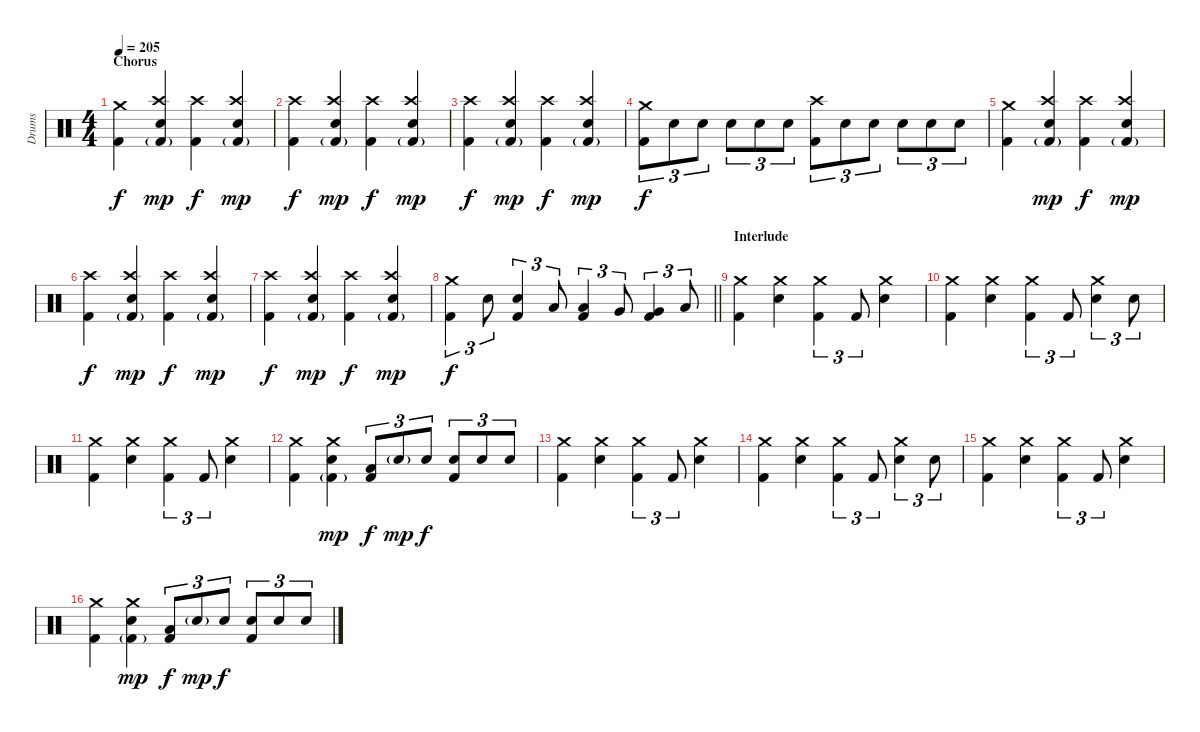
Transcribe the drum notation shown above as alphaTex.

\track ("Drums" "Drums") {instrument percussion}
\staff {score}
\articulation defaults
\ts (4 4)
\section ("" "Chorus")
\tempo 205
\clef neutral
\ks c
("Crash medium (hit)" "Kick (hit) 2").4{dy f} ("Crash high (hit)" "Electric Snare (hit)" "Kick (hit) 2"{g}).4{dy mp} ("Crash high (hit)" "Kick (hit) 2").4{dy f} ("Crash high (hit)" "Electric Snare (hit)" "Kick (hit) 2"{g}).4{dy mp} |
("Crash high (hit)" "Kick (hit) 2").4{dy f} ("Crash high (hit)" "Electric Snare (hit)" "Kick (hit) 2"{g}).4{dy mp} ("Crash high (hit)" "Kick (hit) 2").4{dy f} ("Crash high (hit)" "Electric Snare (hit)" "Kick (hit) 2"{g}).4{dy mp} |
("Crash high (hit)" "Kick (hit) 2").4{dy f} ("Crash high (hit)" "Electric Snare (hit)" "Kick (hit) 2"{g}).4{dy mp} ("Crash high (hit)" "Kick (hit) 2").4{dy f} ("Crash high (hit)" "Electric Snare (hit)" "Kick (hit) 2"{g}).4{dy mp} |
("Crash medium (hit)" "Kick (hit) 2").8{tu (3 2) dy f} "Electric Snare (hit)".8{tu (3 2)} "Electric Snare (hit)".8{tu (3 2)} "Electric Snare (hit)".8{tu (3 2)} "Electric Snare (hit)".8{tu (3 2)} "Electric Snare (hit)".8{tu (3 2)} ("Crash high (hit)" "Kick (hit) 2").8{tu (3 2)} "Electric Snare (hit)".8{tu (3 2)} "Electric Snare (hit)".8{tu (3 2)} "Electric Snare (hit)".8{tu (3 2)} "Electric Snare (hit)".8{tu (3 2)} "Electric Snare (hit)".8{tu (3 2)} |
("Crash medium (hit)" "Kick (hit) 2").4 ("Crash high (hit)" "Electric Snare (hit)" "Kick (hit) 2"{g}).4{dy mp} ("Crash high (hit)" "Kick (hit) 2").4{dy f} ("Crash high (hit)" "Electric Snare (hit)" "Kick (hit) 2"{g}).4{dy mp} |
("Crash high (hit)" "Kick (hit) 2").4{dy f} ("Crash high (hit)" "Electric Snare (hit)" "Kick (hit) 2"{g}).4{dy mp} ("Crash high (hit)" "Kick (hit) 2").4{dy f} ("Crash high (hit)" "Electric Snare (hit)" "Kick (hit) 2"{g}).4{dy mp} |
("Crash high (hit)" "Kick (hit) 2").4{dy f} ("Crash high (hit)" "Electric Snare (hit)" "Kick (hit) 2"{g}).4{dy mp} ("Crash high (hit)" "Kick (hit) 2").4{dy f} ("Crash high (hit)" "Electric Snare (hit)" "Kick (hit) 2"{g}).4{dy mp} |
\barLineRight lightlight
("Crash medium (hit)" "Kick (hit) 2").4{tu (3 2) dy f} "Electric Snare (hit)".8{tu (3 2)} ("Electric Snare (hit)" "Kick (hit) 2").4{tu (3 2)} "Low Tom (hit)".8{tu (3 2)} ("Low Tom (hit)" "Kick (hit) 2").4{tu (3 2)} "Very Low Tom (hit)".8{tu (3 2)} ("Very Low Tom (hit)" "Kick (hit) 2").4{tu (3 2)} "Low Floor Tom (hit)".8{tu (3 2)} |
\section ("" "Interlude")
("Crash medium (hit)" "Kick (hit) 2").4 ("Crash medium (hit)" "Electric Snare (hit)").4 ("Crash medium (hit)" "Kick (hit) 2").4{tu (3 2)} "Kick (hit) 2".8{tu (3 2)} ("Crash medium (hit)" "Electric Snare (hit)").4 |
("Crash medium (hit)" "Kick (hit) 2").4 ("Crash medium (hit)" "Electric Snare (hit)").4 ("Crash medium (hit)" "Kick (hit) 2").4{tu (3 2)} "Kick (hit) 2".8{tu (3 2)} ("Crash medium (hit)" "Electric Snare (hit)").4{tu (3 2)} "Electric Snare (hit)".8{tu (3 2)} |
("Crash medium (hit)" "Kick (hit) 2").4 ("Crash medium (hit)" "Electric Snare (hit)").4 ("Crash medium (hit)" "Kick (hit) 2").4{tu (3 2)} "Kick (hit) 2".8{tu (3 2)} ("Crash medium (hit)" "Electric Snare (hit)").4 |
("Crash medium (hit)" "Kick (hit) 2").4 ("Crash medium (hit)" "Electric Snare (hit)" "Kick (hit) 2"{g}).4{dy mp} ("Low Tom (hit)" "Kick (hit) 2").8{tu (3 2) dy f} "Electric Snare (hit)"{g}.8{tu (3 2) dy mp} "Electric Snare (hit)".8{tu (3 2) dy f} ("Electric Snare (hit)" "Kick (hit) 2").8{tu (3 2)} "Electric Snare (hit)".8{tu (3 2)} "Electric Snare (hit)".8{tu (3 2)} |
("Crash medium (hit)" "Kick (hit) 2").4 ("Crash medium (hit)" "Electric Snare (hit)").4 ("Crash medium (hit)" "Kick (hit) 2").4{tu (3 2)} "Kick (hit) 2".8{tu (3 2)} ("Crash medium (hit)" "Electric Snare (hit)").4 |
("Crash medium (hit)" "Kick (hit) 2").4 ("Crash medium (hit)" "Electric Snare (hit)").4 ("Crash medium (hit)" "Kick (hit) 2").4{tu (3 2)} "Kick (hit) 2".8{tu (3 2)} ("Crash medium (hit)" "Electric Snare (hit)").4{tu (3 2)} "Electric Snare (hit)".8{tu (3 2)} |
("Crash medium (hit)" "Kick (hit) 2").4 ("Crash medium (hit)" "Electric Snare (hit)").4 ("Crash medium (hit)" "Kick (hit) 2").4{tu (3 2)} "Kick (hit) 2".8{tu (3 2)} ("Crash medium (hit)" "Electric Snare (hit)").4 |
("Crash medium (hit)" "Kick (hit) 2").4 ("Crash medium (hit)" "Electric Snare (hit)" "Kick (hit) 2"{g}).4{dy mp} ("Low Tom (hit)" "Kick (hit) 2").8{tu (3 2) dy f} "Electric Snare (hit)"{g}.8{tu (3 2) dy mp} "Electric Snare (hit)".8{tu (3 2) dy f} ("Electric Snare (hit)" "Kick (hit) 2").8{tu (3 2)} "Electric Snare (hit)".8{tu (3 2)} "Electric Snare (hit)".8{tu (3 2)}
